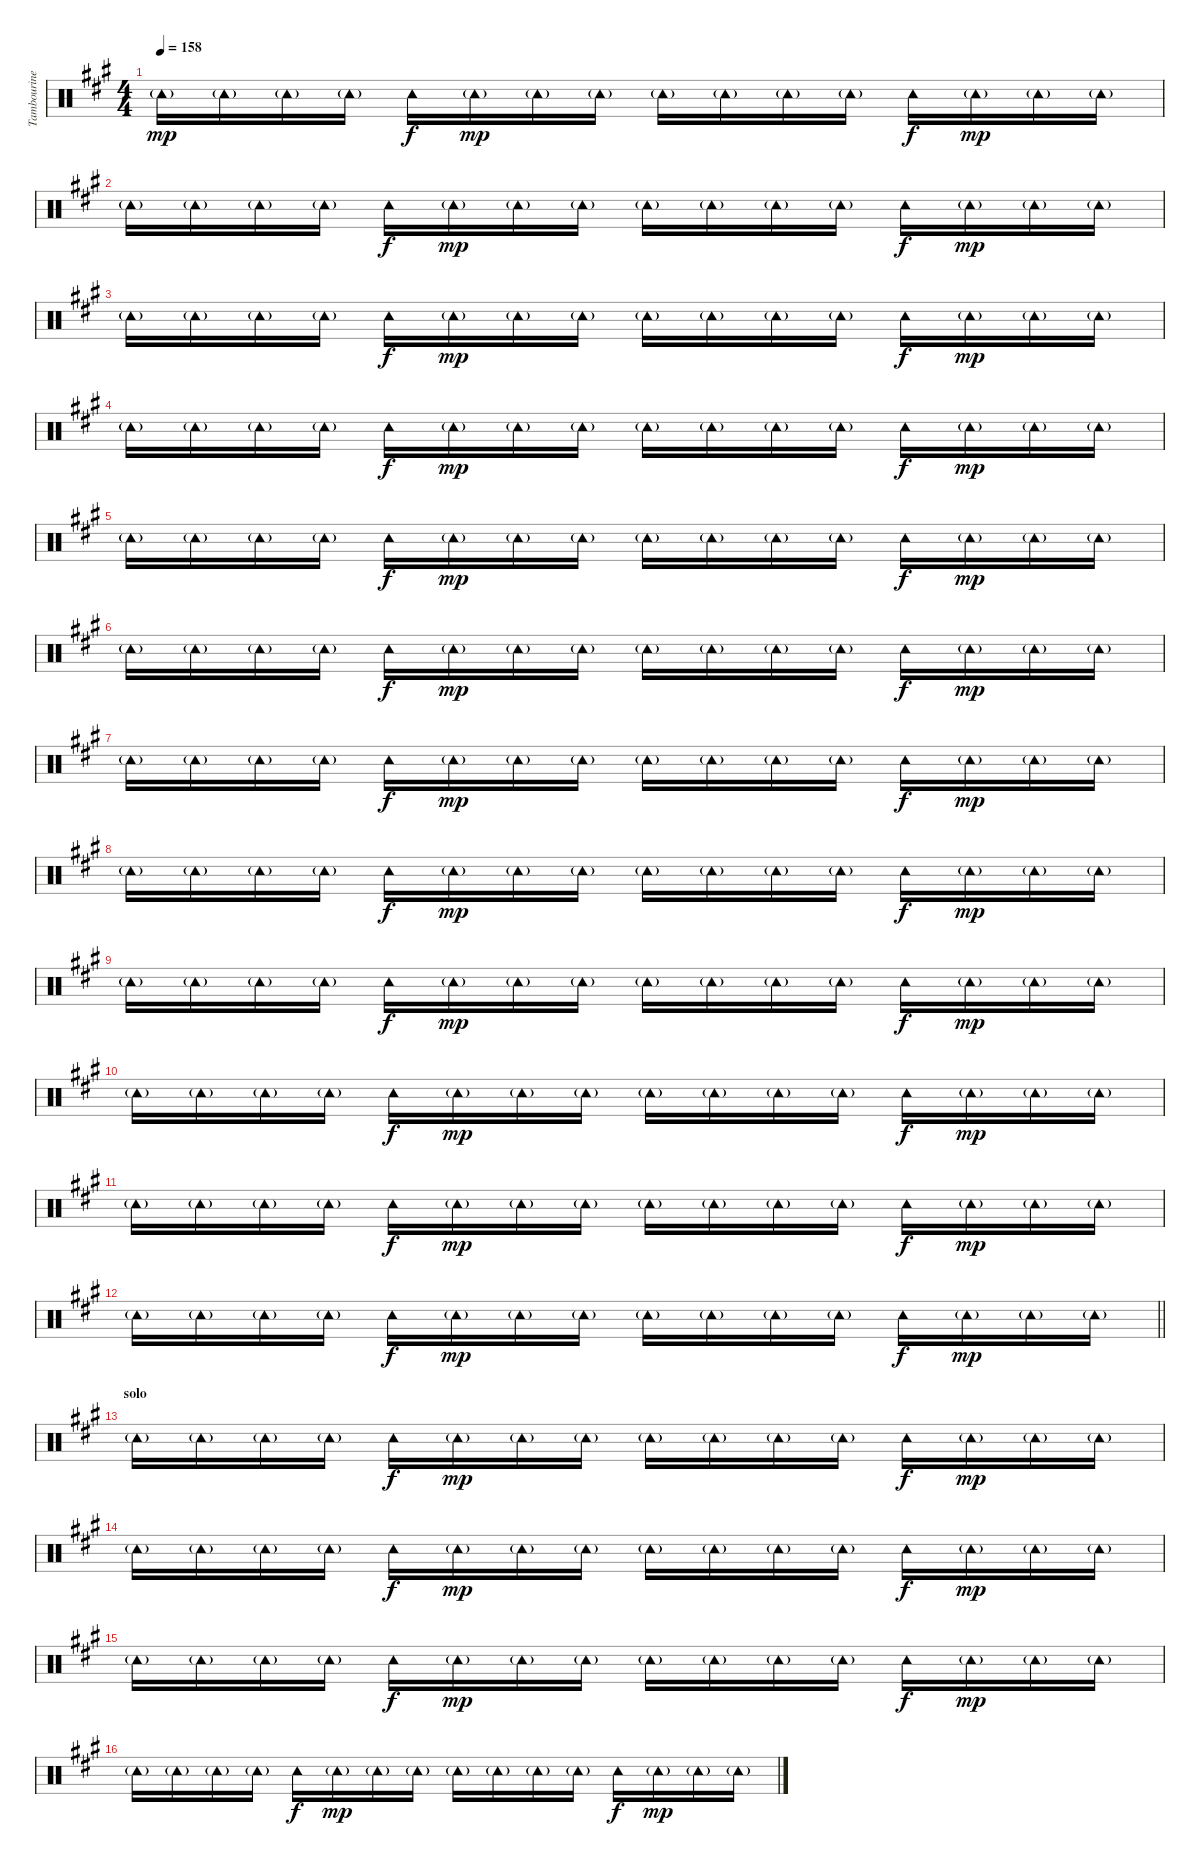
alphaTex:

\track ("Tambourine" "Tambourine") {instrument percussion}
\staff {score}
\articulation defaults
\ts (4 4)
\tempo 158
\clef neutral
\ks a "Tambourine (hit)"{g}.16{dy mp} "Tambourine (hit)"{g}.16 "Tambourine (hit)"{g}.16 "Tambourine (hit)"{g}.16 "Tambourine (hit)".16{dy f} "Tambourine (hit)"{g}.16{dy mp} "Tambourine (hit)"{g}.16 "Tambourine (hit)"{g}.16 "Tambourine (hit)"{g}.16 "Tambourine (hit)"{g}.16 "Tambourine (hit)"{g}.16 "Tambourine (hit)"{g}.16 "Tambourine (hit)".16{dy f} "Tambourine (hit)"{g}.16{dy mp} "Tambourine (hit)"{g}.16 "Tambourine (hit)"{g}.16
|
"Tambourine (hit)"{g}.16 "Tambourine (hit)"{g}.16 "Tambourine (hit)"{g}.16 "Tambourine (hit)"{g}.16 "Tambourine (hit)".16{dy f} "Tambourine (hit)"{g}.16{dy mp} "Tambourine (hit)"{g}.16 "Tambourine (hit)"{g}.16 "Tambourine (hit)"{g}.16 "Tambourine (hit)"{g}.16 "Tambourine (hit)"{g}.16 "Tambourine (hit)"{g}.16 "Tambourine (hit)".16{dy f} "Tambourine (hit)"{g}.16{dy mp} "Tambourine (hit)"{g}.16 "Tambourine (hit)"{g}.16 |
"Tambourine (hit)"{g}.16 "Tambourine (hit)"{g}.16 "Tambourine (hit)"{g}.16 "Tambourine (hit)"{g}.16 "Tambourine (hit)".16{dy f} "Tambourine (hit)"{g}.16{dy mp} "Tambourine (hit)"{g}.16 "Tambourine (hit)"{g}.16 "Tambourine (hit)"{g}.16 "Tambourine (hit)"{g}.16 "Tambourine (hit)"{g}.16 "Tambourine (hit)"{g}.16 "Tambourine (hit)".16{dy f} "Tambourine (hit)"{g}.16{dy mp} "Tambourine (hit)"{g}.16 "Tambourine (hit)"{g}.16 |
"Tambourine (hit)"{g}.16 "Tambourine (hit)"{g}.16 "Tambourine (hit)"{g}.16 "Tambourine (hit)"{g}.16 "Tambourine (hit)".16{dy f} "Tambourine (hit)"{g}.16{dy mp} "Tambourine (hit)"{g}.16 "Tambourine (hit)"{g}.16 "Tambourine (hit)"{g}.16 "Tambourine (hit)"{g}.16 "Tambourine (hit)"{g}.16 "Tambourine (hit)"{g}.16 "Tambourine (hit)".16{dy f} "Tambourine (hit)"{g}.16{dy mp} "Tambourine (hit)"{g}.16 "Tambourine (hit)"{g}.16 |
"Tambourine (hit)"{g}.16 "Tambourine (hit)"{g}.16 "Tambourine (hit)"{g}.16 "Tambourine (hit)"{g}.16 "Tambourine (hit)".16{dy f} "Tambourine (hit)"{g}.16{dy mp} "Tambourine (hit)"{g}.16 "Tambourine (hit)"{g}.16 "Tambourine (hit)"{g}.16 "Tambourine (hit)"{g}.16 "Tambourine (hit)"{g}.16 "Tambourine (hit)"{g}.16 "Tambourine (hit)".16{dy f} "Tambourine (hit)"{g}.16{dy mp} "Tambourine (hit)"{g}.16 "Tambourine (hit)"{g}.16 |
"Tambourine (hit)"{g}.16 "Tambourine (hit)"{g}.16 "Tambourine (hit)"{g}.16 "Tambourine (hit)"{g}.16 "Tambourine (hit)".16{dy f} "Tambourine (hit)"{g}.16{dy mp} "Tambourine (hit)"{g}.16 "Tambourine (hit)"{g}.16 "Tambourine (hit)"{g}.16 "Tambourine (hit)"{g}.16 "Tambourine (hit)"{g}.16 "Tambourine (hit)"{g}.16 "Tambourine (hit)".16{dy f} "Tambourine (hit)"{g}.16{dy mp} "Tambourine (hit)"{g}.16 "Tambourine (hit)"{g}.16 |
"Tambourine (hit)"{g}.16 "Tambourine (hit)"{g}.16 "Tambourine (hit)"{g}.16 "Tambourine (hit)"{g}.16 "Tambourine (hit)".16{dy f} "Tambourine (hit)"{g}.16{dy mp} "Tambourine (hit)"{g}.16 "Tambourine (hit)"{g}.16 "Tambourine (hit)"{g}.16 "Tambourine (hit)"{g}.16 "Tambourine (hit)"{g}.16 "Tambourine (hit)"{g}.16 "Tambourine (hit)".16{dy f} "Tambourine (hit)"{g}.16{dy mp} "Tambourine (hit)"{g}.16 "Tambourine (hit)"{g}.16 |
"Tambourine (hit)"{g}.16 "Tambourine (hit)"{g}.16 "Tambourine (hit)"{g}.16 "Tambourine (hit)"{g}.16 "Tambourine (hit)".16{dy f} "Tambourine (hit)"{g}.16{dy mp} "Tambourine (hit)"{g}.16 "Tambourine (hit)"{g}.16 "Tambourine (hit)"{g}.16 "Tambourine (hit)"{g}.16 "Tambourine (hit)"{g}.16 "Tambourine (hit)"{g}.16 "Tambourine (hit)".16{dy f} "Tambourine (hit)"{g}.16{dy mp} "Tambourine (hit)"{g}.16 "Tambourine (hit)"{g}.16 |
"Tambourine (hit)"{g}.16 "Tambourine (hit)"{g}.16 "Tambourine (hit)"{g}.16 "Tambourine (hit)"{g}.16 "Tambourine (hit)".16{dy f} "Tambourine (hit)"{g}.16{dy mp} "Tambourine (hit)"{g}.16 "Tambourine (hit)"{g}.16 "Tambourine (hit)"{g}.16 "Tambourine (hit)"{g}.16 "Tambourine (hit)"{g}.16 "Tambourine (hit)"{g}.16 "Tambourine (hit)".16{dy f} "Tambourine (hit)"{g}.16{dy mp} "Tambourine (hit)"{g}.16 "Tambourine (hit)"{g}.16 |
"Tambourine (hit)"{g}.16 "Tambourine (hit)"{g}.16 "Tambourine (hit)"{g}.16 "Tambourine (hit)"{g}.16 "Tambourine (hit)".16{dy f} "Tambourine (hit)"{g}.16{dy mp} "Tambourine (hit)"{g}.16 "Tambourine (hit)"{g}.16 "Tambourine (hit)"{g}.16 "Tambourine (hit)"{g}.16 "Tambourine (hit)"{g}.16 "Tambourine (hit)"{g}.16 "Tambourine (hit)".16{dy f} "Tambourine (hit)"{g}.16{dy mp} "Tambourine (hit)"{g}.16 "Tambourine (hit)"{g}.16 |
"Tambourine (hit)"{g}.16 "Tambourine (hit)"{g}.16 "Tambourine (hit)"{g}.16 "Tambourine (hit)"{g}.16 "Tambourine (hit)".16{dy f} "Tambourine (hit)"{g}.16{dy mp} "Tambourine (hit)"{g}.16 "Tambourine (hit)"{g}.16 "Tambourine (hit)"{g}.16 "Tambourine (hit)"{g}.16 "Tambourine (hit)"{g}.16 "Tambourine (hit)"{g}.16 "Tambourine (hit)".16{dy f} "Tambourine (hit)"{g}.16{dy mp} "Tambourine (hit)"{g}.16 "Tambourine (hit)"{g}.16 |
\barLineRight lightlight "Tambourine (hit)"{g}.16 "Tambourine (hit)"{g}.16 "Tambourine (hit)"{g}.16 "Tambourine (hit)"{g}.16 "Tambourine (hit)".16{dy f} "Tambourine (hit)"{g}.16{dy mp} "Tambourine (hit)"{g}.16 "Tambourine (hit)"{g}.16 "Tambourine (hit)"{g}.16 "Tambourine (hit)"{g}.16 "Tambourine (hit)"{g}.16 "Tambourine (hit)"{g}.16 "Tambourine (hit)".16{dy f} "Tambourine (hit)"{g}.16{dy mp} "Tambourine (hit)"{g}.16 "Tambourine (hit)"{g}.16
|
\section ("" "solo")
"Tambourine (hit)"{g}.16 "Tambourine (hit)"{g}.16 "Tambourine (hit)"{g}.16 "Tambourine (hit)"{g}.16 "Tambourine (hit)".16{dy f} "Tambourine (hit)"{g}.16{dy mp} "Tambourine (hit)"{g}.16 "Tambourine (hit)"{g}.16 "Tambourine (hit)"{g}.16 "Tambourine (hit)"{g}.16 "Tambourine (hit)"{g}.16 "Tambourine (hit)"{g}.16 "Tambourine (hit)".16{dy f} "Tambourine (hit)"{g}.16{dy mp} "Tambourine (hit)"{g}.16 "Tambourine (hit)"{g}.16 |
"Tambourine (hit)"{g}.16 "Tambourine (hit)"{g}.16 "Tambourine (hit)"{g}.16 "Tambourine (hit)"{g}.16 "Tambourine (hit)".16{dy f} "Tambourine (hit)"{g}.16{dy mp} "Tambourine (hit)"{g}.16 "Tambourine (hit)"{g}.16 "Tambourine (hit)"{g}.16 "Tambourine (hit)"{g}.16 "Tambourine (hit)"{g}.16 "Tambourine (hit)"{g}.16 "Tambourine (hit)".16{dy f} "Tambourine (hit)"{g}.16{dy mp} "Tambourine (hit)"{g}.16 "Tambourine (hit)"{g}.16 |
"Tambourine (hit)"{g}.16 "Tambourine (hit)"{g}.16 "Tambourine (hit)"{g}.16 "Tambourine (hit)"{g}.16 "Tambourine (hit)".16{dy f} "Tambourine (hit)"{g}.16{dy mp} "Tambourine (hit)"{g}.16 "Tambourine (hit)"{g}.16 "Tambourine (hit)"{g}.16 "Tambourine (hit)"{g}.16 "Tambourine (hit)"{g}.16 "Tambourine (hit)"{g}.16 "Tambourine (hit)".16{dy f} "Tambourine (hit)"{g}.16{dy mp} "Tambourine (hit)"{g}.16 "Tambourine (hit)"{g}.16 |
"Tambourine (hit)"{g}.16 "Tambourine (hit)"{g}.16 "Tambourine (hit)"{g}.16 "Tambourine (hit)"{g}.16 "Tambourine (hit)".16{dy f} "Tambourine (hit)"{g}.16{dy mp} "Tambourine (hit)"{g}.16 "Tambourine (hit)"{g}.16 "Tambourine (hit)"{g}.16 "Tambourine (hit)"{g}.16 "Tambourine (hit)"{g}.16 "Tambourine (hit)"{g}.16 "Tambourine (hit)".16{dy f} "Tambourine (hit)"{g}.16{dy mp} "Tambourine (hit)"{g}.16 "Tambourine (hit)"{g}.16
